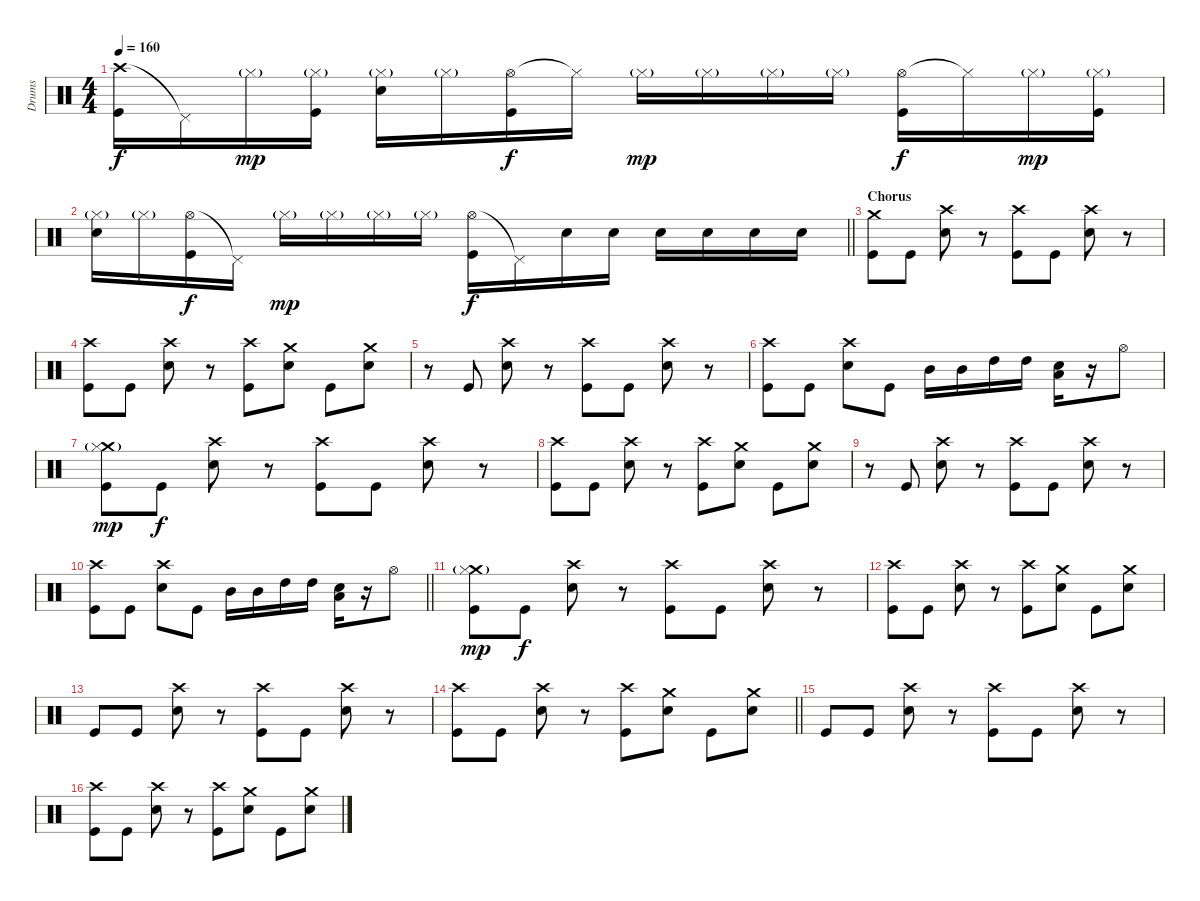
\track ("Drums" "Drums") {instrument percussion}
\staff {score}
\articulation defaults
\ts (4 4)
\tempo 160
\clef neutral
\ks c
("Crash high (hit)" "Kick (hit)").16{dy f} "Pedal Hi-Hat (hit)"{t}.16 "Hi-Hat (closed)"{g}.16{dy mp} ("Hi-Hat (closed)"{g} "Kick (hit)").16 ("Hi-Hat (closed)"{g} "Snare (hit) 2").16 "Hi-Hat (closed)"{g}.16 ("Hi-Hat (open)" "Kick (hit)").16{dy f} "Hi-Hat (closed)"{t}.16 "Hi-Hat (closed)"{g}.16{dy mp} "Hi-Hat (closed)"{g}.16 "Hi-Hat (closed)"{g}.16 "Hi-Hat (closed)"{g}.16 ("Hi-Hat (open)" "Kick (hit)").16{dy f} "Hi-Hat (closed)"{t}.16 "Hi-Hat (closed)"{g}.16{dy mp} ("Hi-Hat (closed)"{g} "Kick (hit)").16 |
\barLineRight lightlight
("Hi-Hat (closed)"{g} "Snare (hit) 2").16 "Hi-Hat (closed)"{g}.16 ("Hi-Hat (open)" "Kick (hit)").16{dy f} "Pedal Hi-Hat (hit)"{t}.16 "Hi-Hat (closed)"{g}.16{dy mp} "Hi-Hat (closed)"{g}.16 "Hi-Hat (closed)"{g}.16 "Hi-Hat (closed)"{g}.16 ("Hi-Hat (open)" "Kick (hit)").16{dy f} "Pedal Hi-Hat (hit)"{t}.16 "Snare (hit) 2".16 "Snare (hit) 2".16 "Snare (hit) 2".16 "Snare (hit) 2".16 "Snare (hit) 2".16 "Snare (hit) 2".16 |
\section ("" "Chorus")
("Crash medium (hit)" "Kick (hit)").8 "Kick (hit)".8 ("Crash high (hit)" "Snare (hit) 2").8 r.8 ("Crash high (hit)" "Kick (hit)").8 "Kick (hit)".8 ("Crash high (hit)" "Snare (hit) 2").8 r.8 |
("Crash high (hit)" "Kick (hit)").8 "Kick (hit)".8 ("Crash high (hit)" "Snare (hit) 2").8 r.8 ("Crash high (hit)" "Kick (hit)").8 ("Crash medium (hit)" "Snare (hit) 2").8 "Kick (hit)".8 ("Crash medium (hit)" "Snare (hit) 2").8 |
r.8 "Kick (hit)".8 ("Crash high (hit)" "Snare (hit) 2").8 r.8 ("Crash high (hit)" "Kick (hit)").8 "Kick (hit)".8 ("Crash high (hit)" "Snare (hit) 2").8 r.8 |
("Crash high (hit)" "Kick (hit)").8 "Kick (hit)".8 ("Crash high (hit)" "Snare (hit) 2").8 "Kick (hit)".8 "Mid Tom (hit)".16 "Mid Tom (hit)".16 "High Tom (hit)".16 "High Tom (hit)".16 ("Low Floor Tom (hit)" "Snare (hit) 2").16 r.16 "Hi-Hat (open)".8 |
("Crash medium (hit)" "Kick (hit)" "Hi-Hat (closed)"{g}).8{dy mp} "Kick (hit)".8{dy f} ("Crash high (hit)" "Snare (hit) 2").8 r.8 ("Crash high (hit)" "Kick (hit)").8 "Kick (hit)".8 ("Crash high (hit)" "Snare (hit) 2").8 r.8 |
("Crash high (hit)" "Kick (hit)").8 "Kick (hit)".8 ("Crash high (hit)" "Snare (hit) 2").8 r.8 ("Crash high (hit)" "Kick (hit)").8 ("Crash medium (hit)" "Snare (hit) 2").8 "Kick (hit)".8 ("Crash medium (hit)" "Snare (hit) 2").8 |
r.8 "Kick (hit)".8 ("Crash high (hit)" "Snare (hit) 2").8 r.8 ("Crash high (hit)" "Kick (hit)").8 "Kick (hit)".8 ("Crash high (hit)" "Snare (hit) 2").8 r.8 |
\barLineRight lightlight
("Crash high (hit)" "Kick (hit)").8 "Kick (hit)".8 ("Crash high (hit)" "Snare (hit) 2").8 "Kick (hit)".8 "Mid Tom (hit)".16 "Mid Tom (hit)".16 "High Tom (hit)".16 "High Tom (hit)".16 ("Low Floor Tom (hit)" "Snare (hit) 2").16 r.16 "Hi-Hat (open)".8 |
("Crash medium (hit)" "Kick (hit)" "Hi-Hat (closed)"{g}).8{dy mp} "Kick (hit)".8{dy f} ("Crash high (hit)" "Snare (hit) 2").8 r.8 ("Crash high (hit)" "Kick (hit)").8 "Kick (hit)".8 ("Crash high (hit)" "Snare (hit) 2").8 r.8 |
("Crash high (hit)" "Kick (hit)").8 "Kick (hit)".8 ("Crash high (hit)" "Snare (hit) 2").8 r.8 ("Crash high (hit)" "Kick (hit)").8 ("Crash medium (hit)" "Snare (hit) 2").8 "Kick (hit)".8 ("Crash medium (hit)" "Snare (hit) 2").8 |
"Kick (hit)".8 "Kick (hit)".8 ("Crash high (hit)" "Snare (hit) 2").8 r.8 ("Crash high (hit)" "Kick (hit)").8 "Kick (hit)".8 ("Crash high (hit)" "Snare (hit) 2").8 r.8 |
\barLineRight lightlight
("Crash high (hit)" "Kick (hit)").8 "Kick (hit)".8 ("Crash high (hit)" "Snare (hit) 2").8 r.8 ("Crash high (hit)" "Kick (hit)").8 ("Crash medium (hit)" "Snare (hit) 2").8 "Kick (hit)".8 ("Crash medium (hit)" "Snare (hit) 2").8 |
"Kick (hit)".8 "Kick (hit)".8 ("Crash high (hit)" "Snare (hit) 2").8 r.8 ("Crash high (hit)" "Kick (hit)").8 "Kick (hit)".8 ("Crash high (hit)" "Snare (hit) 2").8 r.8 |
("Crash high (hit)" "Kick (hit)").8 "Kick (hit)".8 ("Crash high (hit)" "Snare (hit) 2").8 r.8 ("Crash high (hit)" "Kick (hit)").8 ("Crash medium (hit)" "Snare (hit) 2").8 "Kick (hit)".8 ("Crash medium (hit)" "Snare (hit) 2").8
